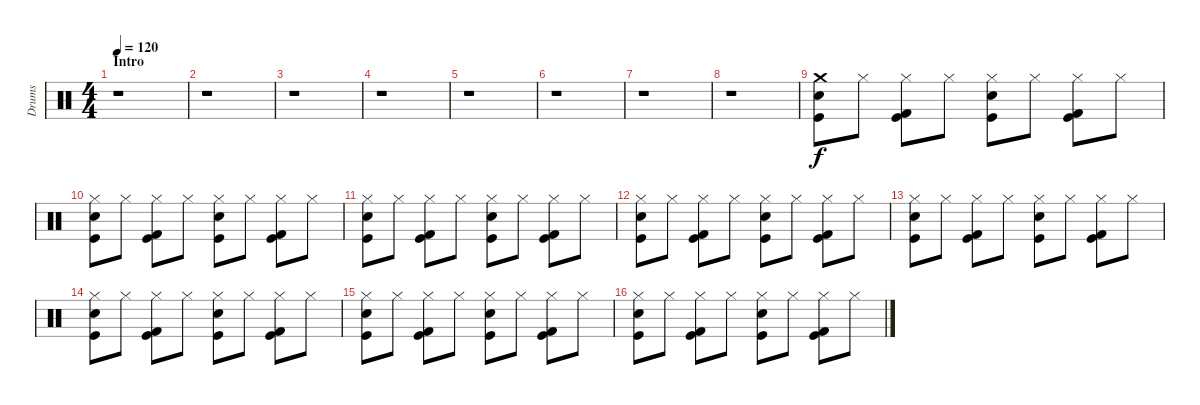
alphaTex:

\track ("Drums" "Drums") {instrument percussion}
\staff {score}
\articulation defaults
\ts (4 4)
\section ("" "Intro")
\tempo 120
\clef neutral
\ks c
r.1{dy f} |
r.1 |
r.1 |
r.1 |
r.1 |
r.1 |
r.1 |
r.1 |
("Kick (hit)" "Snare (hit) 2" "Crash medium (hit)").8 "Hi-Hat (closed)".8 ("Hi-Hat (closed)" "Kick (hit)" "Kick (hit) 2").8 "Hi-Hat (closed)".8 ("Hi-Hat (closed)" "Kick (hit)" "Snare (hit) 2").8 "Hi-Hat (closed)".8 ("Hi-Hat (closed)" "Kick (hit)" "Kick (hit) 2").8 "Hi-Hat (closed)".8 |
("Hi-Hat (closed)" "Kick (hit)" "Snare (hit) 2").8 "Hi-Hat (closed)".8 ("Hi-Hat (closed)" "Kick (hit)" "Kick (hit) 2").8 "Hi-Hat (closed)".8 ("Hi-Hat (closed)" "Kick (hit)" "Snare (hit) 2").8 "Hi-Hat (closed)".8 ("Hi-Hat (closed)" "Kick (hit)" "Kick (hit) 2").8 "Hi-Hat (closed)".8 |
("Hi-Hat (closed)" "Kick (hit)" "Snare (hit) 2").8 "Hi-Hat (closed)".8 ("Hi-Hat (closed)" "Kick (hit)" "Kick (hit) 2").8 "Hi-Hat (closed)".8 ("Hi-Hat (closed)" "Kick (hit)" "Snare (hit) 2").8 "Hi-Hat (closed)".8 ("Hi-Hat (closed)" "Kick (hit)" "Kick (hit) 2").8 "Hi-Hat (closed)".8 |
("Hi-Hat (closed)" "Kick (hit)" "Snare (hit) 2").8 "Hi-Hat (closed)".8 ("Hi-Hat (closed)" "Kick (hit)" "Kick (hit) 2").8 "Hi-Hat (closed)".8 ("Hi-Hat (closed)" "Kick (hit)" "Snare (hit) 2").8 "Hi-Hat (closed)".8 ("Hi-Hat (closed)" "Kick (hit)" "Kick (hit) 2").8 "Hi-Hat (closed)".8 |
("Hi-Hat (closed)" "Kick (hit)" "Snare (hit) 2").8 "Hi-Hat (closed)".8 ("Hi-Hat (closed)" "Kick (hit)" "Kick (hit) 2").8 "Hi-Hat (closed)".8 ("Hi-Hat (closed)" "Kick (hit)" "Snare (hit) 2").8 "Hi-Hat (closed)".8 ("Hi-Hat (closed)" "Kick (hit)" "Kick (hit) 2").8 "Hi-Hat (closed)".8 |
("Hi-Hat (closed)" "Kick (hit)" "Snare (hit) 2").8 "Hi-Hat (closed)".8 ("Hi-Hat (closed)" "Kick (hit)" "Kick (hit) 2").8 "Hi-Hat (closed)".8 ("Hi-Hat (closed)" "Kick (hit)" "Snare (hit) 2").8 "Hi-Hat (closed)".8 ("Hi-Hat (closed)" "Kick (hit)" "Kick (hit) 2").8 "Hi-Hat (closed)".8 |
("Hi-Hat (closed)" "Kick (hit)" "Snare (hit) 2").8 "Hi-Hat (closed)".8 ("Hi-Hat (closed)" "Kick (hit)" "Kick (hit) 2").8 "Hi-Hat (closed)".8 ("Hi-Hat (closed)" "Kick (hit)" "Snare (hit) 2").8 "Hi-Hat (closed)".8 ("Hi-Hat (closed)" "Kick (hit)" "Kick (hit) 2").8 "Hi-Hat (closed)".8 |
("Hi-Hat (closed)" "Kick (hit)" "Snare (hit) 2").8 "Hi-Hat (closed)".8 ("Hi-Hat (closed)" "Kick (hit)" "Kick (hit) 2").8 "Hi-Hat (closed)".8 ("Hi-Hat (closed)" "Kick (hit)" "Snare (hit) 2").8 "Hi-Hat (closed)".8 ("Hi-Hat (closed)" "Kick (hit)" "Kick (hit) 2").8 "Hi-Hat (closed)".8
